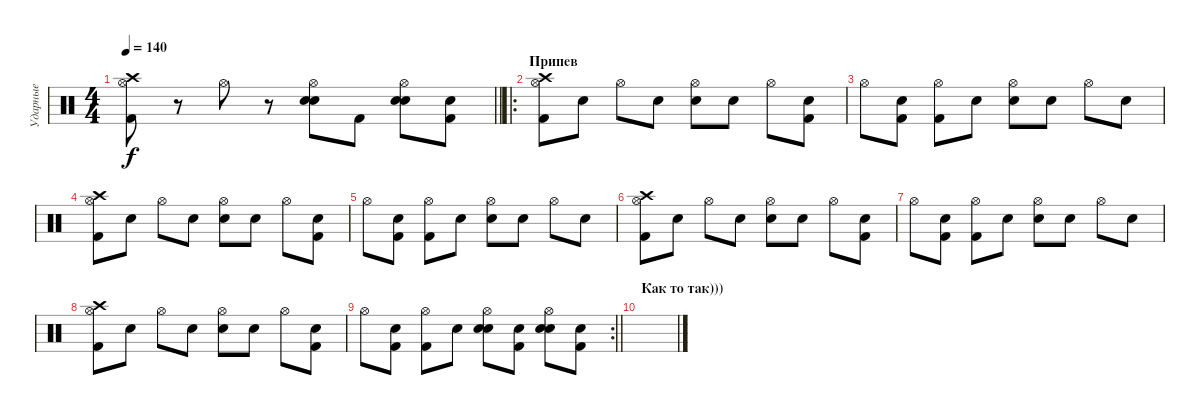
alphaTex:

\track ("Ударные" "Ударные") {instrument percussion}
\staff {score}
\articulation defaults
\ts (4 4)
\tempo 140
\clef neutral
\barLineRight lightlight
\ks c
("Crash high (hit)" "Kick (hit) 2" "Hi-Hat (open)").8{dy f} r.8 "Hi-Hat (open)".8 r.8 ("Snare (hit) 2" "Snare (hit) 2" "Hi-Hat (open)").8 "Kick (hit) 2".8 ("Snare (hit) 2" "Snare (hit) 2" "Hi-Hat (open)").8 ("Kick (hit) 2" "Snare (hit)").8 |
\ro
\section ("" "Припев")
("Crash high (hit)" "Kick (hit) 2" "Hi-Hat (open)").8 "Snare (hit)".8 "Hi-Hat (open)".8 "Snare (hit)".8 ("Snare (hit) 2" "Hi-Hat (open)").8 "Snare (hit)".8 "Hi-Hat (open)".8 ("Kick (hit) 2" "Snare (hit)").8 |
"Hi-Hat (open)".8 ("Kick (hit) 2" "Snare (hit)").8 ("Kick (hit) 2" "Hi-Hat (open)").8 "Snare (hit)".8 ("Snare (hit) 2" "Hi-Hat (open)").8 "Snare (hit)".8 "Hi-Hat (open)".8 "Snare (hit)".8 |
("Crash high (hit)" "Kick (hit) 2" "Hi-Hat (open)").8 "Snare (hit)".8 "Hi-Hat (open)".8 "Snare (hit)".8 ("Snare (hit) 2" "Hi-Hat (open)").8 "Snare (hit)".8 "Hi-Hat (open)".8 ("Kick (hit) 2" "Snare (hit)").8 |
"Hi-Hat (open)".8 ("Kick (hit) 2" "Snare (hit)").8 ("Kick (hit) 2" "Hi-Hat (open)").8 "Snare (hit)".8 ("Snare (hit) 2" "Hi-Hat (open)").8 "Snare (hit)".8 "Hi-Hat (open)".8 "Snare (hit)".8 |
("Crash high (hit)" "Kick (hit) 2" "Hi-Hat (open)").8 "Snare (hit)".8 "Hi-Hat (open)".8 "Snare (hit)".8 ("Snare (hit) 2" "Hi-Hat (open)").8 "Snare (hit)".8 "Hi-Hat (open)".8 ("Kick (hit) 2" "Snare (hit)").8 |
"Hi-Hat (open)".8 ("Kick (hit) 2" "Snare (hit)").8 ("Kick (hit) 2" "Hi-Hat (open)").8 "Snare (hit)".8 ("Snare (hit) 2" "Hi-Hat (open)").8 "Snare (hit)".8 "Hi-Hat (open)".8 "Snare (hit)".8 |
("Crash high (hit)" "Kick (hit) 2" "Hi-Hat (open)").8 "Snare (hit)".8 "Hi-Hat (open)".8 "Snare (hit)".8 ("Snare (hit) 2" "Hi-Hat (open)").8 "Snare (hit)".8 "Hi-Hat (open)".8 ("Kick (hit) 2" "Snare (hit)").8 |
\rc 2
\barLineRight lightlight "Hi-Hat (open)".8
("Kick (hit) 2" "Snare (hit)").8 ("Kick (hit) 2" "Hi-Hat (open)").8 "Snare (hit)".8 ("Snare (hit) 2" "Snare (hit) 2" "Hi-Hat (open)").8 ("Kick (hit) 2" "Snare (hit)").8 ("Snare (hit) 2" "Snare (hit) 2" "Hi-Hat (open)").8 ("Kick (hit) 2" "Snare (hit)").8 |
\section ("" "Как то так)))")
